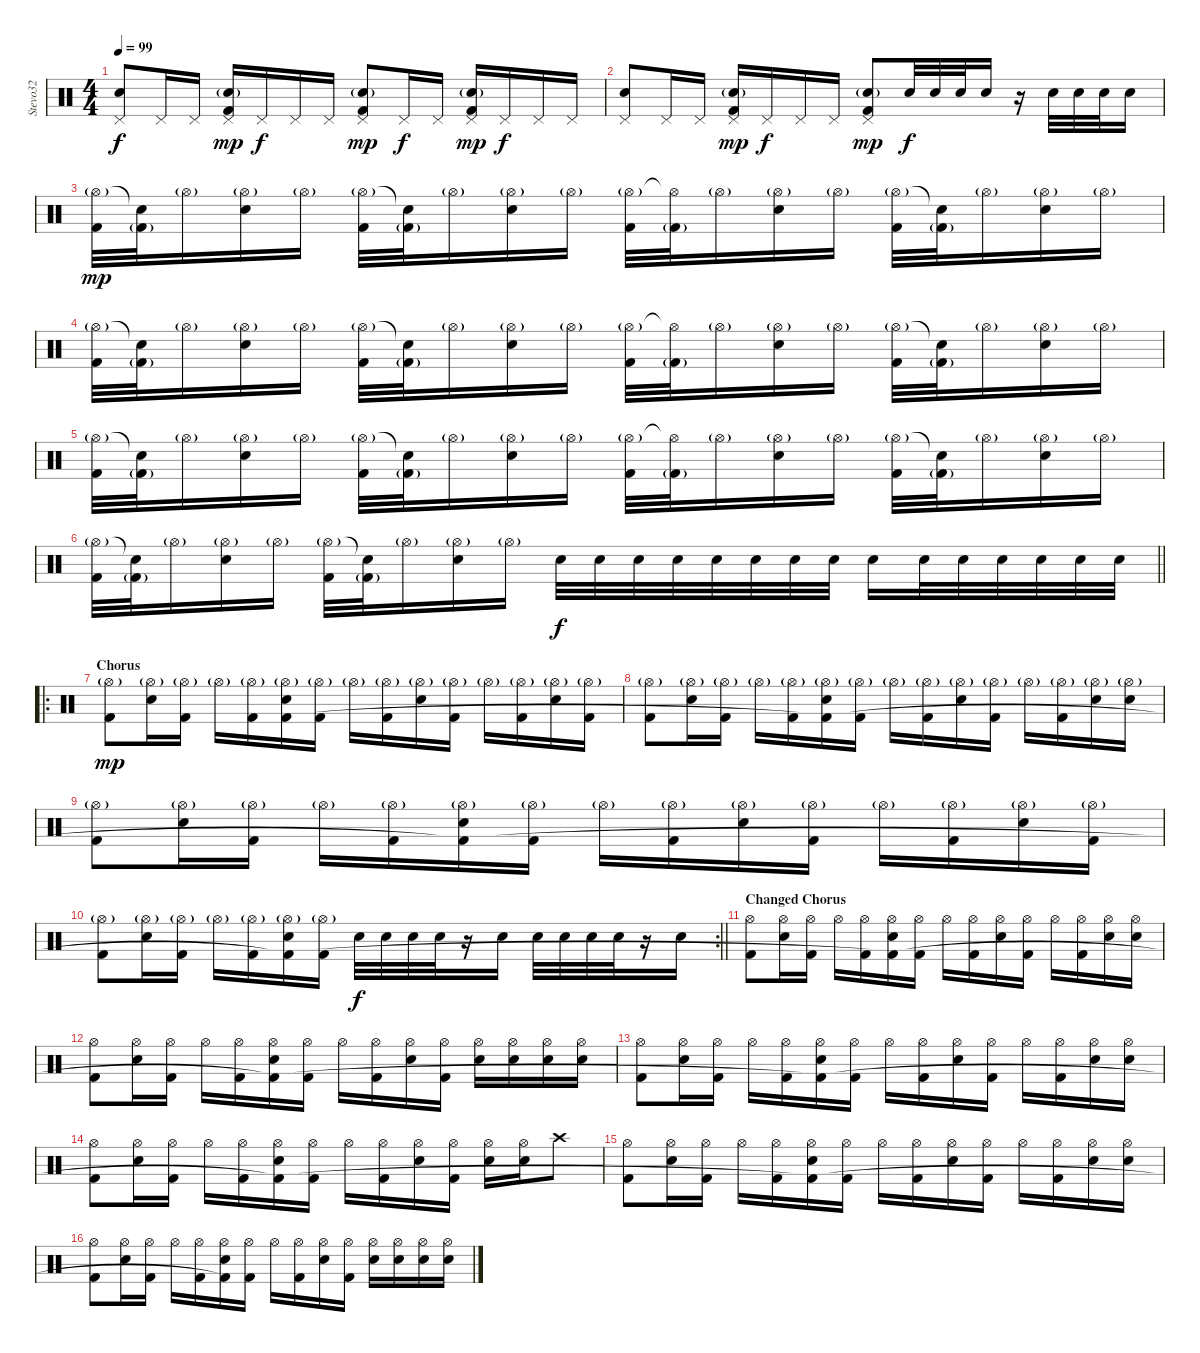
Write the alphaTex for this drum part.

\track ("Stevo32" "Stevo32") {instrument percussion}
\staff {score}
\articulation defaults
\ts (4 4)
\tempo 99
\clef neutral
\ks c
("Pedal Hi-Hat (hit)" "Electric Snare (hit)").8{dy f} "Pedal Hi-Hat (hit)".16 "Pedal Hi-Hat (hit)".16 ("Pedal Hi-Hat (hit)" "Electric Snare (hit)"{g} "Kick (hit) 2").16{dy mp} "Pedal Hi-Hat (hit)".16{dy f} "Pedal Hi-Hat (hit)".16 "Pedal Hi-Hat (hit)".16 ("Pedal Hi-Hat (hit)" "Electric Snare (hit)"{g} "Kick (hit) 2").8{dy mp} "Pedal Hi-Hat (hit)".16{dy f} "Pedal Hi-Hat (hit)".16 ("Pedal Hi-Hat (hit)" "Electric Snare (hit)"{g} "Kick (hit) 2").16{dy mp} "Pedal Hi-Hat (hit)".16{dy f} "Pedal Hi-Hat (hit)".16 "Pedal Hi-Hat (hit)".16 |
("Pedal Hi-Hat (hit)" "Electric Snare (hit)").8 "Pedal Hi-Hat (hit)".16 "Pedal Hi-Hat (hit)".16 ("Pedal Hi-Hat (hit)" "Electric Snare (hit)"{g} "Kick (hit) 2").16{dy mp} "Pedal Hi-Hat (hit)".16{dy f} "Pedal Hi-Hat (hit)".16 "Pedal Hi-Hat (hit)".16 ("Pedal Hi-Hat (hit)" "Electric Snare (hit)"{g} "Kick (hit) 2").8{dy mp} "Electric Snare (hit)".32{dy f} "Electric Snare (hit)".32 "Electric Snare (hit)".32 "Electric Snare (hit)".16 r.16 "Electric Snare (hit)".32 "Electric Snare (hit)".32 "Electric Snare (hit)".32 "Electric Snare (hit)".16 |
("Hi-Hat (open)"{g} "Kick (hit) 2").32{dy mp} ("Snare (hit)"{t} "Kick (hit) 2"{g}).32 "Hi-Hat (open)"{g}.16 ("Hi-Hat (open)"{g} "Electric Snare (hit)").16 "Hi-Hat (open)"{g}.16 ("Hi-Hat (open)"{g} "Kick (hit) 2").32 ("Snare (hit)"{t} "Kick (hit) 2"{g}).32 "Hi-Hat (open)"{g}.16 ("Hi-Hat (open)"{g} "Electric Snare (hit)").16 "Hi-Hat (open)"{g}.16 ("Hi-Hat (open)"{g} "Kick (hit) 2").32 ("Hi-Hat (open)"{t} "Kick (hit) 2"{g}).32 "Hi-Hat (open)"{g}.16 ("Hi-Hat (open)"{g} "Electric Snare (hit)").16 "Hi-Hat (open)"{g}.16 ("Hi-Hat (open)"{g} "Kick (hit) 2").32 ("Snare (hit)"{t} "Kick (hit) 2"{g}).32 "Hi-Hat (open)"{g}.16 ("Hi-Hat (open)"{g} "Electric Snare (hit)").16 "Hi-Hat (open)"{g}.16 |
("Hi-Hat (open)"{g} "Kick (hit) 2").32 ("Snare (hit)"{t} "Kick (hit) 2"{g}).32 "Hi-Hat (open)"{g}.16 ("Hi-Hat (open)"{g} "Electric Snare (hit)").16 "Hi-Hat (open)"{g}.16 ("Hi-Hat (open)"{g} "Kick (hit) 2").32 ("Snare (hit)"{t} "Kick (hit) 2"{g}).32 "Hi-Hat (open)"{g}.16 ("Hi-Hat (open)"{g} "Electric Snare (hit)").16 "Hi-Hat (open)"{g}.16 ("Hi-Hat (open)"{g} "Kick (hit) 2").32 ("Hi-Hat (open)"{t} "Kick (hit) 2"{g}).32 "Hi-Hat (open)"{g}.16 ("Hi-Hat (open)"{g} "Electric Snare (hit)").16 "Hi-Hat (open)"{g}.16 ("Hi-Hat (open)"{g} "Kick (hit) 2").32 ("Snare (hit)"{t} "Kick (hit) 2"{g}).32 "Hi-Hat (open)"{g}.16 ("Hi-Hat (open)"{g} "Electric Snare (hit)").16 "Hi-Hat (open)"{g}.16 |
("Hi-Hat (open)"{g} "Kick (hit) 2").32 ("Snare (hit)"{t} "Kick (hit) 2"{g}).32 "Hi-Hat (open)"{g}.16 ("Hi-Hat (open)"{g} "Electric Snare (hit)").16 "Hi-Hat (open)"{g}.16 ("Hi-Hat (open)"{g} "Kick (hit) 2").32 ("Snare (hit)"{t} "Kick (hit) 2"{g}).32 "Hi-Hat (open)"{g}.16 ("Hi-Hat (open)"{g} "Electric Snare (hit)").16 "Hi-Hat (open)"{g}.16 ("Hi-Hat (open)"{g} "Kick (hit) 2").32 ("Hi-Hat (open)"{t} "Kick (hit) 2"{g}).32 "Hi-Hat (open)"{g}.16 ("Hi-Hat (open)"{g} "Electric Snare (hit)").16 "Hi-Hat (open)"{g}.16 ("Hi-Hat (open)"{g} "Kick (hit) 2").32 ("Snare (hit)"{t} "Kick (hit) 2"{g}).32 "Hi-Hat (open)"{g}.16 ("Hi-Hat (open)"{g} "Electric Snare (hit)").16 "Hi-Hat (open)"{g}.16 |
\barLineRight lightlight
("Hi-Hat (open)"{g} "Kick (hit) 2").32 ("Snare (hit)"{t} "Kick (hit) 2"{g}).32 "Hi-Hat (open)"{g}.16 ("Hi-Hat (open)"{g} "Electric Snare (hit)").16 "Hi-Hat (open)"{g}.16 ("Hi-Hat (open)"{g} "Kick (hit) 2").32 ("Snare (hit)"{t} "Kick (hit) 2"{g}).32 "Hi-Hat (open)"{g}.16 ("Hi-Hat (open)"{g} "Electric Snare (hit)").16 "Hi-Hat (open)"{g}.16 "Electric Snare (hit)".32{dy f} "Electric Snare (hit)".32 "Electric Snare (hit)".32 "Electric Snare (hit)".32 "Electric Snare (hit)".32 "Electric Snare (hit)".32 "Electric Snare (hit)".32 "Electric Snare (hit)".32 "Electric Snare (hit)".16 "Electric Snare (hit)".32 "Electric Snare (hit)".32 "Electric Snare (hit)".32 "Electric Snare (hit)".32 "Electric Snare (hit)".32 "Electric Snare (hit)".32 |
\ro
\section ("" "Chorus")
("Hi-Hat (open)"{g} "Kick (hit) 2").8{dy mp} ("Hi-Hat (open)"{g} "Electric Snare (hit)").16 ("Hi-Hat (open)"{g} "Kick (hit) 2").16 "Hi-Hat (open)"{g}.16 ("Hi-Hat (open)"{g} "Kick (hit) 2").16 ("Hi-Hat (open)"{g} "Electric Snare (hit)" "Kick (hit) 2").16 ("Hi-Hat (open)"{g} "Kick (hit) 2").16 "Hi-Hat (open)"{g}.16 ("Hi-Hat (open)"{g} "Kick (hit) 2").16 ("Hi-Hat (open)"{g} "Electric Snare (hit)").16 ("Hi-Hat (open)"{g} "Kick (hit) 2").16 "Hi-Hat (open)"{g}.16 ("Hi-Hat (open)"{g} "Kick (hit) 2").16 ("Hi-Hat (open)"{g} "Electric Snare (hit)").16 ("Hi-Hat (open)"{g} "Kick (hit) 2").16 |
("Hi-Hat (open)"{g} "Kick (hit) 2").8 ("Hi-Hat (open)"{g} "Electric Snare (hit)").16 ("Hi-Hat (open)"{g} "Kick (hit) 2").16 "Hi-Hat (open)"{g}.16 ("Hi-Hat (open)"{g} "Kick (hit) 2").16 ("Hi-Hat (open)"{g} "Electric Snare (hit)" "Kick (hit) 2"{t}).16 ("Hi-Hat (open)"{g} "Kick (hit) 2").16 "Hi-Hat (open)"{g}.16 ("Hi-Hat (open)"{g} "Kick (hit) 2").16 ("Hi-Hat (open)"{g} "Electric Snare (hit)").16 ("Hi-Hat (open)"{g} "Kick (hit) 2").16 "Hi-Hat (open)"{g}.16 ("Hi-Hat (open)"{g} "Kick (hit) 2").16 ("Hi-Hat (open)"{g} "Electric Snare (hit)").16 ("Hi-Hat (open)"{g} "Electric Snare (hit)").16 |
("Hi-Hat (open)"{g} "Kick (hit) 2").8 ("Hi-Hat (open)"{g} "Electric Snare (hit)").16 ("Hi-Hat (open)"{g} "Kick (hit) 2").16 "Hi-Hat (open)"{g}.16 ("Hi-Hat (open)"{g} "Kick (hit) 2").16 ("Hi-Hat (open)"{g} "Electric Snare (hit)" "Kick (hit) 2"{t}).16 ("Hi-Hat (open)"{g} "Kick (hit) 2").16 "Hi-Hat (open)"{g}.16 ("Hi-Hat (open)"{g} "Kick (hit) 2").16 ("Hi-Hat (open)"{g} "Electric Snare (hit)").16 ("Hi-Hat (open)"{g} "Kick (hit) 2").16 "Hi-Hat (open)"{g}.16 ("Hi-Hat (open)"{g} "Kick (hit) 2").16 ("Hi-Hat (open)"{g} "Electric Snare (hit)").16 ("Hi-Hat (open)"{g} "Kick (hit) 2").16 |
\rc 2
\barLineRight lightlight
("Hi-Hat (open)"{g} "Kick (hit) 2").8 ("Hi-Hat (open)"{g} "Electric Snare (hit)").16 ("Hi-Hat (open)"{g} "Kick (hit) 2").16 "Hi-Hat (open)"{g}.16 ("Hi-Hat (open)"{g} "Kick (hit) 2").16 ("Hi-Hat (open)"{g} "Electric Snare (hit)" "Kick (hit) 2"{t}).16 ("Hi-Hat (open)"{g} "Kick (hit) 2").16 "Electric Snare (hit)".32{dy f} "Electric Snare (hit)".32 "Electric Snare (hit)".32 "Electric Snare (hit)".32 r.16 "Electric Snare (hit)".16 "Electric Snare (hit)".32 "Electric Snare (hit)".32 "Electric Snare (hit)".32 "Electric Snare (hit)".32 r.16 "Electric Snare (hit)".16 |
\section ("" "Changed Chorus")
("Hi-Hat (open)" "Kick (hit) 2").8 ("Hi-Hat (open)" "Electric Snare (hit)").16 ("Hi-Hat (open)" "Kick (hit) 2").16 "Hi-Hat (open)".16 ("Hi-Hat (open)" "Kick (hit) 2").16 ("Hi-Hat (open)" "Electric Snare (hit)" "Kick (hit) 2"{t}).16 ("Hi-Hat (open)" "Kick (hit) 2").16 "Hi-Hat (open)".16 ("Hi-Hat (open)" "Kick (hit) 2").16 ("Hi-Hat (open)" "Electric Snare (hit)").16 ("Hi-Hat (open)" "Kick (hit) 2").16 "Hi-Hat (open)".16 ("Hi-Hat (open)" "Kick (hit) 2").16 ("Hi-Hat (open)" "Electric Snare (hit)").16 ("Hi-Hat (open)" "Electric Snare (hit)").16 |
("Hi-Hat (open)" "Kick (hit) 2").8 ("Hi-Hat (open)" "Electric Snare (hit)").16 ("Hi-Hat (open)" "Kick (hit) 2").16 "Hi-Hat (open)".16 ("Hi-Hat (open)" "Kick (hit) 2").16 ("Hi-Hat (open)" "Electric Snare (hit)" "Kick (hit) 2"{t}).16 ("Hi-Hat (open)" "Kick (hit) 2").16 "Hi-Hat (open)".16 ("Hi-Hat (open)" "Kick (hit) 2").16 ("Hi-Hat (open)" "Electric Snare (hit)").16 ("Hi-Hat (open)" "Kick (hit) 2").16 ("Hi-Hat (open)" "Electric Snare (hit)").16 ("Hi-Hat (open)" "Electric Snare (hit)").16 ("Hi-Hat (open)" "Electric Snare (hit)").16 ("Hi-Hat (open)" "Electric Snare (hit)").16 |
("Hi-Hat (open)" "Kick (hit) 2").8 ("Hi-Hat (open)" "Electric Snare (hit)").16 ("Hi-Hat (open)" "Kick (hit) 2").16 "Hi-Hat (open)".16 ("Hi-Hat (open)" "Kick (hit) 2").16 ("Hi-Hat (open)" "Electric Snare (hit)" "Kick (hit) 2"{t}).16 ("Hi-Hat (open)" "Kick (hit) 2").16 "Hi-Hat (open)".16 ("Hi-Hat (open)" "Kick (hit) 2").16 ("Hi-Hat (open)" "Electric Snare (hit)").16 ("Hi-Hat (open)" "Kick (hit) 2").16 "Hi-Hat (open)".16 ("Hi-Hat (open)" "Kick (hit) 2").16 ("Hi-Hat (open)" "Electric Snare (hit)").16 ("Hi-Hat (open)" "Electric Snare (hit)").16 |
("Hi-Hat (open)" "Kick (hit) 2").8 ("Hi-Hat (open)" "Electric Snare (hit)").16 ("Hi-Hat (open)" "Kick (hit) 2").16 "Hi-Hat (open)".16 ("Hi-Hat (open)" "Kick (hit) 2").16 ("Hi-Hat (open)" "Electric Snare (hit)" "Kick (hit) 2"{t}).16 ("Hi-Hat (open)" "Kick (hit) 2").16 "Hi-Hat (open)".16 ("Hi-Hat (open)" "Kick (hit) 2").16 ("Hi-Hat (open)" "Electric Snare (hit)").16 ("Hi-Hat (open)" "Kick (hit) 2").16 ("Hi-Hat (open)" "Electric Snare (hit)").16 ("Hi-Hat (open)" "Electric Snare (hit)").16 "Crash high (hit)".8 |
("Hi-Hat (open)" "Kick (hit) 2").8 ("Hi-Hat (open)" "Electric Snare (hit)").16 ("Hi-Hat (open)" "Kick (hit) 2").16 "Hi-Hat (open)".16 ("Hi-Hat (open)" "Kick (hit) 2").16 ("Hi-Hat (open)" "Electric Snare (hit)" "Kick (hit) 2"{t}).16 ("Hi-Hat (open)" "Kick (hit) 2").16 "Hi-Hat (open)".16 ("Hi-Hat (open)" "Kick (hit) 2").16 ("Hi-Hat (open)" "Electric Snare (hit)").16 ("Hi-Hat (open)" "Kick (hit) 2").16 "Hi-Hat (open)".16 ("Hi-Hat (open)" "Kick (hit) 2").16 ("Hi-Hat (open)" "Electric Snare (hit)").16 ("Hi-Hat (open)" "Electric Snare (hit)").16 |
("Hi-Hat (open)" "Kick (hit) 2").8 ("Hi-Hat (open)" "Electric Snare (hit)").16 ("Hi-Hat (open)" "Kick (hit) 2").16 "Hi-Hat (open)".16 ("Hi-Hat (open)" "Kick (hit) 2").16 ("Hi-Hat (open)" "Electric Snare (hit)" "Kick (hit) 2"{t}).16 ("Hi-Hat (open)" "Kick (hit) 2").16 "Hi-Hat (open)".16 ("Hi-Hat (open)" "Kick (hit) 2").16 ("Hi-Hat (open)" "Electric Snare (hit)").16 ("Hi-Hat (open)" "Kick (hit) 2").16 ("Hi-Hat (open)" "Electric Snare (hit)").16 ("Hi-Hat (open)" "Electric Snare (hit)").16 ("Hi-Hat (open)" "Electric Snare (hit)").16 ("Hi-Hat (open)" "Electric Snare (hit)").16
